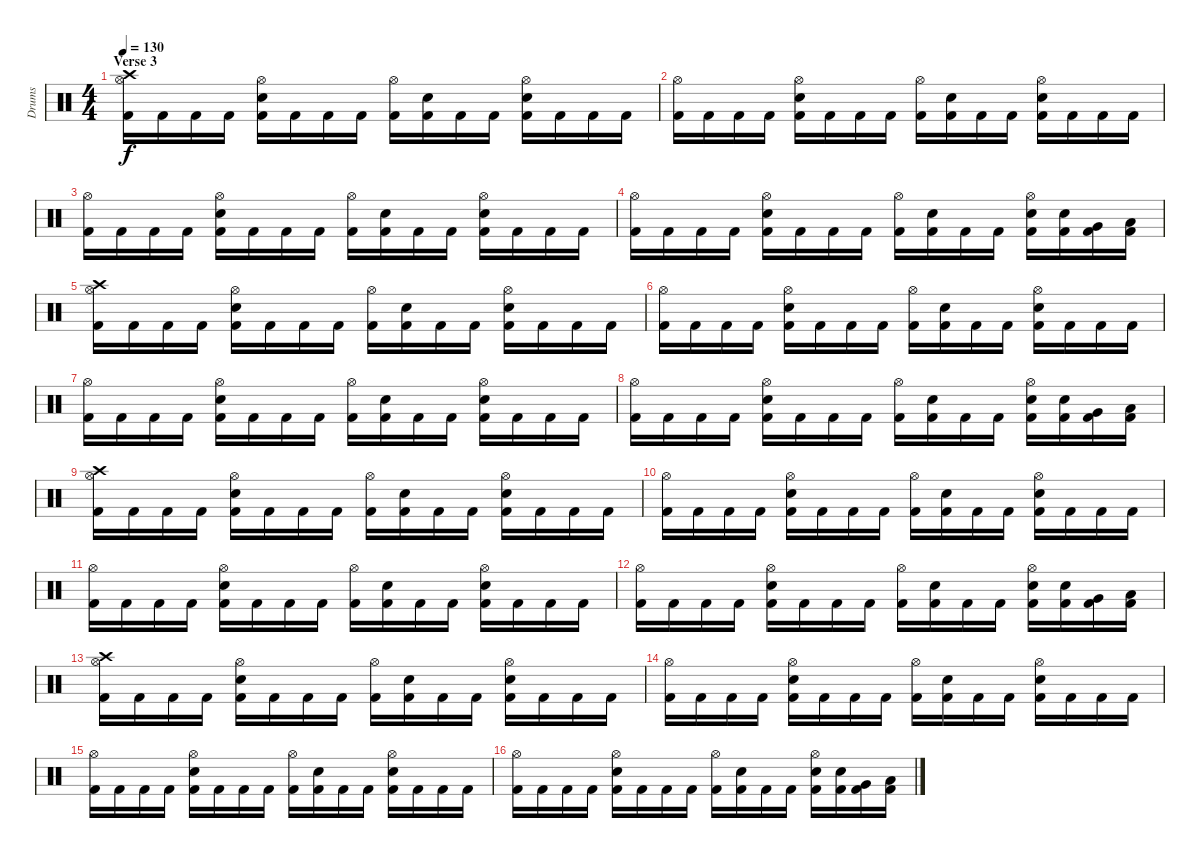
\track ("Drums" "Drums") {instrument percussion}
\staff {score}
\articulation defaults
\ts (4 4)
\section ("" "Verse 3")
\tempo 130
\clef neutral
\ks c
("Crash high (hit)" "Hi-Hat (open)" "Kick (hit) 2").16{dy f} "Kick (hit) 2".16 "Kick (hit) 2".16 "Kick (hit) 2".16 ("Hi-Hat (open)" "Electric Snare (hit)" "Kick (hit) 2").16 "Kick (hit) 2".16 "Kick (hit) 2".16 "Kick (hit) 2".16 ("Hi-Hat (open)" "Kick (hit) 2").16 ("Electric Snare (hit)" "Kick (hit) 2").16 "Kick (hit) 2".16 "Kick (hit) 2".16 ("Hi-Hat (open)" "Electric Snare (hit)" "Kick (hit) 2").16 "Kick (hit) 2".16 "Kick (hit) 2".16 "Kick (hit) 2".16 |
("Hi-Hat (open)" "Kick (hit) 2").16 "Kick (hit) 2".16 "Kick (hit) 2".16 "Kick (hit) 2".16 ("Hi-Hat (open)" "Electric Snare (hit)" "Kick (hit) 2").16 "Kick (hit) 2".16 "Kick (hit) 2".16 "Kick (hit) 2".16 ("Hi-Hat (open)" "Kick (hit) 2").16 ("Electric Snare (hit)" "Kick (hit) 2").16 "Kick (hit) 2".16 "Kick (hit) 2".16 ("Hi-Hat (open)" "Electric Snare (hit)" "Kick (hit) 2").16 "Kick (hit) 2".16 "Kick (hit) 2".16 "Kick (hit) 2".16 |
("Hi-Hat (open)" "Kick (hit) 2").16 "Kick (hit) 2".16 "Kick (hit) 2".16 "Kick (hit) 2".16 ("Hi-Hat (open)" "Electric Snare (hit)" "Kick (hit) 2").16 "Kick (hit) 2".16 "Kick (hit) 2".16 "Kick (hit) 2".16 ("Hi-Hat (open)" "Kick (hit) 2").16 ("Electric Snare (hit)" "Kick (hit) 2").16 "Kick (hit) 2".16 "Kick (hit) 2".16 ("Hi-Hat (open)" "Electric Snare (hit)" "Kick (hit) 2").16 "Kick (hit) 2".16 "Kick (hit) 2".16 "Kick (hit) 2".16 |
("Hi-Hat (open)" "Kick (hit) 2").16 "Kick (hit) 2".16 "Kick (hit) 2".16 "Kick (hit) 2".16 ("Hi-Hat (open)" "Electric Snare (hit)" "Kick (hit) 2").16 "Kick (hit) 2".16 "Kick (hit) 2".16 "Kick (hit) 2".16 ("Hi-Hat (open)" "Kick (hit) 2").16 ("Electric Snare (hit)" "Kick (hit) 2").16 "Kick (hit) 2".16 "Kick (hit) 2".16 ("Hi-Hat (open)" "Electric Snare (hit)" "Kick (hit) 2").16 ("Electric Snare (hit)" "Kick (hit) 2").16 ("Very Low Tom (hit)" "Kick (hit) 2").16 ("Low Floor Tom (hit)" "Kick (hit) 2").16 |
("Crash high (hit)" "Hi-Hat (open)" "Kick (hit) 2").16 "Kick (hit) 2".16 "Kick (hit) 2".16 "Kick (hit) 2".16 ("Hi-Hat (open)" "Electric Snare (hit)" "Kick (hit) 2").16 "Kick (hit) 2".16 "Kick (hit) 2".16 "Kick (hit) 2".16 ("Hi-Hat (open)" "Kick (hit) 2").16 ("Electric Snare (hit)" "Kick (hit) 2").16 "Kick (hit) 2".16 "Kick (hit) 2".16 ("Hi-Hat (open)" "Electric Snare (hit)" "Kick (hit) 2").16 "Kick (hit) 2".16 "Kick (hit) 2".16 "Kick (hit) 2".16 |
("Hi-Hat (open)" "Kick (hit) 2").16 "Kick (hit) 2".16 "Kick (hit) 2".16 "Kick (hit) 2".16 ("Hi-Hat (open)" "Electric Snare (hit)" "Kick (hit) 2").16 "Kick (hit) 2".16 "Kick (hit) 2".16 "Kick (hit) 2".16 ("Hi-Hat (open)" "Kick (hit) 2").16 ("Electric Snare (hit)" "Kick (hit) 2").16 "Kick (hit) 2".16 "Kick (hit) 2".16 ("Hi-Hat (open)" "Electric Snare (hit)" "Kick (hit) 2").16 "Kick (hit) 2".16 "Kick (hit) 2".16 "Kick (hit) 2".16 |
("Hi-Hat (open)" "Kick (hit) 2").16 "Kick (hit) 2".16 "Kick (hit) 2".16 "Kick (hit) 2".16 ("Hi-Hat (open)" "Electric Snare (hit)" "Kick (hit) 2").16 "Kick (hit) 2".16 "Kick (hit) 2".16 "Kick (hit) 2".16 ("Hi-Hat (open)" "Kick (hit) 2").16 ("Electric Snare (hit)" "Kick (hit) 2").16 "Kick (hit) 2".16 "Kick (hit) 2".16 ("Hi-Hat (open)" "Electric Snare (hit)" "Kick (hit) 2").16 "Kick (hit) 2".16 "Kick (hit) 2".16 "Kick (hit) 2".16 |
("Hi-Hat (open)" "Kick (hit) 2").16 "Kick (hit) 2".16 "Kick (hit) 2".16 "Kick (hit) 2".16 ("Hi-Hat (open)" "Electric Snare (hit)" "Kick (hit) 2").16 "Kick (hit) 2".16 "Kick (hit) 2".16 "Kick (hit) 2".16 ("Hi-Hat (open)" "Kick (hit) 2").16 ("Electric Snare (hit)" "Kick (hit) 2").16 "Kick (hit) 2".16 "Kick (hit) 2".16 ("Hi-Hat (open)" "Electric Snare (hit)" "Kick (hit) 2").16 ("Electric Snare (hit)" "Kick (hit) 2").16 ("Very Low Tom (hit)" "Kick (hit) 2").16 ("Low Floor Tom (hit)" "Kick (hit) 2").16 |
("Crash high (hit)" "Hi-Hat (open)" "Kick (hit) 2").16 "Kick (hit) 2".16 "Kick (hit) 2".16 "Kick (hit) 2".16 ("Hi-Hat (open)" "Electric Snare (hit)" "Kick (hit) 2").16 "Kick (hit) 2".16 "Kick (hit) 2".16 "Kick (hit) 2".16 ("Hi-Hat (open)" "Kick (hit) 2").16 ("Electric Snare (hit)" "Kick (hit) 2").16 "Kick (hit) 2".16 "Kick (hit) 2".16 ("Hi-Hat (open)" "Electric Snare (hit)" "Kick (hit) 2").16 "Kick (hit) 2".16 "Kick (hit) 2".16 "Kick (hit) 2".16 |
("Hi-Hat (open)" "Kick (hit) 2").16 "Kick (hit) 2".16 "Kick (hit) 2".16 "Kick (hit) 2".16 ("Hi-Hat (open)" "Electric Snare (hit)" "Kick (hit) 2").16 "Kick (hit) 2".16 "Kick (hit) 2".16 "Kick (hit) 2".16 ("Hi-Hat (open)" "Kick (hit) 2").16 ("Electric Snare (hit)" "Kick (hit) 2").16 "Kick (hit) 2".16 "Kick (hit) 2".16 ("Hi-Hat (open)" "Electric Snare (hit)" "Kick (hit) 2").16 "Kick (hit) 2".16 "Kick (hit) 2".16 "Kick (hit) 2".16 |
("Hi-Hat (open)" "Kick (hit) 2").16 "Kick (hit) 2".16 "Kick (hit) 2".16 "Kick (hit) 2".16 ("Hi-Hat (open)" "Electric Snare (hit)" "Kick (hit) 2").16 "Kick (hit) 2".16 "Kick (hit) 2".16 "Kick (hit) 2".16 ("Hi-Hat (open)" "Kick (hit) 2").16 ("Electric Snare (hit)" "Kick (hit) 2").16 "Kick (hit) 2".16 "Kick (hit) 2".16 ("Hi-Hat (open)" "Electric Snare (hit)" "Kick (hit) 2").16 "Kick (hit) 2".16 "Kick (hit) 2".16 "Kick (hit) 2".16 |
("Hi-Hat (open)" "Kick (hit) 2").16 "Kick (hit) 2".16 "Kick (hit) 2".16 "Kick (hit) 2".16 ("Hi-Hat (open)" "Electric Snare (hit)" "Kick (hit) 2").16 "Kick (hit) 2".16 "Kick (hit) 2".16 "Kick (hit) 2".16 ("Hi-Hat (open)" "Kick (hit) 2").16 ("Electric Snare (hit)" "Kick (hit) 2").16 "Kick (hit) 2".16 "Kick (hit) 2".16 ("Hi-Hat (open)" "Electric Snare (hit)" "Kick (hit) 2").16 ("Electric Snare (hit)" "Kick (hit) 2").16 ("Very Low Tom (hit)" "Kick (hit) 2").16 ("Low Floor Tom (hit)" "Kick (hit) 2").16 |
("Crash high (hit)" "Hi-Hat (open)" "Kick (hit) 2").16 "Kick (hit) 2".16 "Kick (hit) 2".16 "Kick (hit) 2".16 ("Hi-Hat (open)" "Electric Snare (hit)" "Kick (hit) 2").16 "Kick (hit) 2".16 "Kick (hit) 2".16 "Kick (hit) 2".16 ("Hi-Hat (open)" "Kick (hit) 2").16 ("Electric Snare (hit)" "Kick (hit) 2").16 "Kick (hit) 2".16 "Kick (hit) 2".16 ("Hi-Hat (open)" "Electric Snare (hit)" "Kick (hit) 2").16 "Kick (hit) 2".16 "Kick (hit) 2".16 "Kick (hit) 2".16 |
("Hi-Hat (open)" "Kick (hit) 2").16 "Kick (hit) 2".16 "Kick (hit) 2".16 "Kick (hit) 2".16 ("Hi-Hat (open)" "Electric Snare (hit)" "Kick (hit) 2").16 "Kick (hit) 2".16 "Kick (hit) 2".16 "Kick (hit) 2".16 ("Hi-Hat (open)" "Kick (hit) 2").16 ("Electric Snare (hit)" "Kick (hit) 2").16 "Kick (hit) 2".16 "Kick (hit) 2".16 ("Hi-Hat (open)" "Electric Snare (hit)" "Kick (hit) 2").16 "Kick (hit) 2".16 "Kick (hit) 2".16 "Kick (hit) 2".16 |
("Hi-Hat (open)" "Kick (hit) 2").16 "Kick (hit) 2".16 "Kick (hit) 2".16 "Kick (hit) 2".16 ("Hi-Hat (open)" "Electric Snare (hit)" "Kick (hit) 2").16 "Kick (hit) 2".16 "Kick (hit) 2".16 "Kick (hit) 2".16 ("Hi-Hat (open)" "Kick (hit) 2").16 ("Electric Snare (hit)" "Kick (hit) 2").16 "Kick (hit) 2".16 "Kick (hit) 2".16 ("Hi-Hat (open)" "Electric Snare (hit)" "Kick (hit) 2").16 "Kick (hit) 2".16 "Kick (hit) 2".16 "Kick (hit) 2".16 |
("Hi-Hat (open)" "Kick (hit) 2").16 "Kick (hit) 2".16 "Kick (hit) 2".16 "Kick (hit) 2".16 ("Hi-Hat (open)" "Electric Snare (hit)" "Kick (hit) 2").16 "Kick (hit) 2".16 "Kick (hit) 2".16 "Kick (hit) 2".16 ("Hi-Hat (open)" "Kick (hit) 2").16 ("Electric Snare (hit)" "Kick (hit) 2").16 "Kick (hit) 2".16 "Kick (hit) 2".16 ("Hi-Hat (open)" "Electric Snare (hit)" "Kick (hit) 2").16 ("Electric Snare (hit)" "Kick (hit) 2").16 ("Very Low Tom (hit)" "Kick (hit) 2").16 ("Low Floor Tom (hit)" "Kick (hit) 2").16
